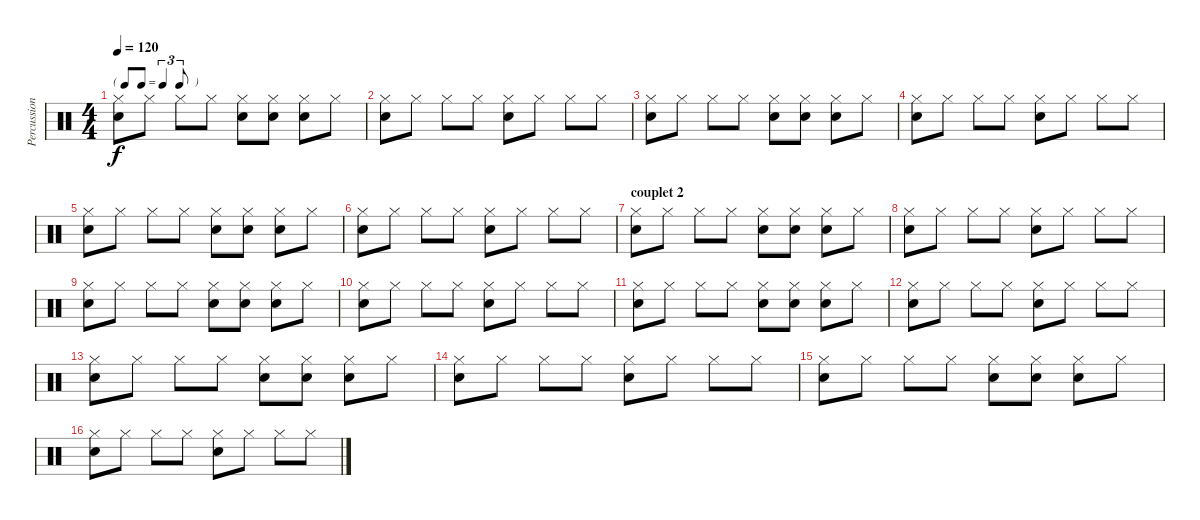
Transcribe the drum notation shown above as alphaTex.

\track ("Percussions" "Percussion") {instrument percussion}
\staff {score}
\articulation defaults
\ts (4 4)
\tf triplet8th
\tempo 120
\clef neutral
\ks c
("Electric Snare (hit)" "Hi-Hat (closed)").8{dy f} "Hi-Hat (closed)".8 "Hi-Hat (closed)".8 "Hi-Hat (closed)".8 ("Electric Snare (hit)" "Hi-Hat (closed)").8 ("Electric Snare (hit)" "Hi-Hat (closed)").8 ("Electric Snare (hit)" "Hi-Hat (closed)").8 "Hi-Hat (closed)".8 |
("Electric Snare (hit)" "Hi-Hat (closed)").8 "Hi-Hat (closed)".8 "Hi-Hat (closed)".8 "Hi-Hat (closed)".8 ("Electric Snare (hit)" "Hi-Hat (closed)").8 "Hi-Hat (closed)".8 "Hi-Hat (closed)".8 "Hi-Hat (closed)".8 |
("Electric Snare (hit)" "Hi-Hat (closed)").8 "Hi-Hat (closed)".8 "Hi-Hat (closed)".8 "Hi-Hat (closed)".8 ("Electric Snare (hit)" "Hi-Hat (closed)").8 ("Electric Snare (hit)" "Hi-Hat (closed)").8 ("Electric Snare (hit)" "Hi-Hat (closed)").8 "Hi-Hat (closed)".8 |
("Electric Snare (hit)" "Hi-Hat (closed)").8 "Hi-Hat (closed)".8 "Hi-Hat (closed)".8 "Hi-Hat (closed)".8 ("Electric Snare (hit)" "Hi-Hat (closed)").8 "Hi-Hat (closed)".8 "Hi-Hat (closed)".8 "Hi-Hat (closed)".8 |
("Electric Snare (hit)" "Hi-Hat (closed)").8 "Hi-Hat (closed)".8 "Hi-Hat (closed)".8 "Hi-Hat (closed)".8 ("Electric Snare (hit)" "Hi-Hat (closed)").8 ("Electric Snare (hit)" "Hi-Hat (closed)").8 ("Electric Snare (hit)" "Hi-Hat (closed)").8 "Hi-Hat (closed)".8 |
("Electric Snare (hit)" "Hi-Hat (closed)").8 "Hi-Hat (closed)".8 "Hi-Hat (closed)".8 "Hi-Hat (closed)".8 ("Electric Snare (hit)" "Hi-Hat (closed)").8 "Hi-Hat (closed)".8 "Hi-Hat (closed)".8 "Hi-Hat (closed)".8 |
\section ("" "couplet 2")
("Electric Snare (hit)" "Hi-Hat (closed)").8 "Hi-Hat (closed)".8 "Hi-Hat (closed)".8 "Hi-Hat (closed)".8 ("Electric Snare (hit)" "Hi-Hat (closed)").8 ("Electric Snare (hit)" "Hi-Hat (closed)").8 ("Electric Snare (hit)" "Hi-Hat (closed)").8 "Hi-Hat (closed)".8 |
("Electric Snare (hit)" "Hi-Hat (closed)").8 "Hi-Hat (closed)".8 "Hi-Hat (closed)".8 "Hi-Hat (closed)".8 ("Electric Snare (hit)" "Hi-Hat (closed)").8 "Hi-Hat (closed)".8 "Hi-Hat (closed)".8 "Hi-Hat (closed)".8 |
("Electric Snare (hit)" "Hi-Hat (closed)").8 "Hi-Hat (closed)".8 "Hi-Hat (closed)".8 "Hi-Hat (closed)".8 ("Electric Snare (hit)" "Hi-Hat (closed)").8 ("Electric Snare (hit)" "Hi-Hat (closed)").8 ("Electric Snare (hit)" "Hi-Hat (closed)").8 "Hi-Hat (closed)".8 |
("Electric Snare (hit)" "Hi-Hat (closed)").8 "Hi-Hat (closed)".8 "Hi-Hat (closed)".8 "Hi-Hat (closed)".8 ("Electric Snare (hit)" "Hi-Hat (closed)").8 "Hi-Hat (closed)".8 "Hi-Hat (closed)".8 "Hi-Hat (closed)".8 |
("Electric Snare (hit)" "Hi-Hat (closed)").8 "Hi-Hat (closed)".8 "Hi-Hat (closed)".8 "Hi-Hat (closed)".8 ("Electric Snare (hit)" "Hi-Hat (closed)").8 ("Electric Snare (hit)" "Hi-Hat (closed)").8 ("Electric Snare (hit)" "Hi-Hat (closed)").8 "Hi-Hat (closed)".8 |
("Electric Snare (hit)" "Hi-Hat (closed)").8 "Hi-Hat (closed)".8 "Hi-Hat (closed)".8 "Hi-Hat (closed)".8 ("Electric Snare (hit)" "Hi-Hat (closed)").8 "Hi-Hat (closed)".8 "Hi-Hat (closed)".8 "Hi-Hat (closed)".8 |
("Electric Snare (hit)" "Hi-Hat (closed)").8 "Hi-Hat (closed)".8 "Hi-Hat (closed)".8 "Hi-Hat (closed)".8 ("Electric Snare (hit)" "Hi-Hat (closed)").8 ("Electric Snare (hit)" "Hi-Hat (closed)").8 ("Electric Snare (hit)" "Hi-Hat (closed)").8 "Hi-Hat (closed)".8 |
("Electric Snare (hit)" "Hi-Hat (closed)").8 "Hi-Hat (closed)".8 "Hi-Hat (closed)".8 "Hi-Hat (closed)".8 ("Electric Snare (hit)" "Hi-Hat (closed)").8 "Hi-Hat (closed)".8 "Hi-Hat (closed)".8 "Hi-Hat (closed)".8 |
("Electric Snare (hit)" "Hi-Hat (closed)").8 "Hi-Hat (closed)".8 "Hi-Hat (closed)".8 "Hi-Hat (closed)".8 ("Electric Snare (hit)" "Hi-Hat (closed)").8 ("Electric Snare (hit)" "Hi-Hat (closed)").8 ("Electric Snare (hit)" "Hi-Hat (closed)").8 "Hi-Hat (closed)".8 |
("Electric Snare (hit)" "Hi-Hat (closed)").8 "Hi-Hat (closed)".8 "Hi-Hat (closed)".8 "Hi-Hat (closed)".8 ("Electric Snare (hit)" "Hi-Hat (closed)").8 "Hi-Hat (closed)".8 "Hi-Hat (closed)".8 "Hi-Hat (closed)".8
